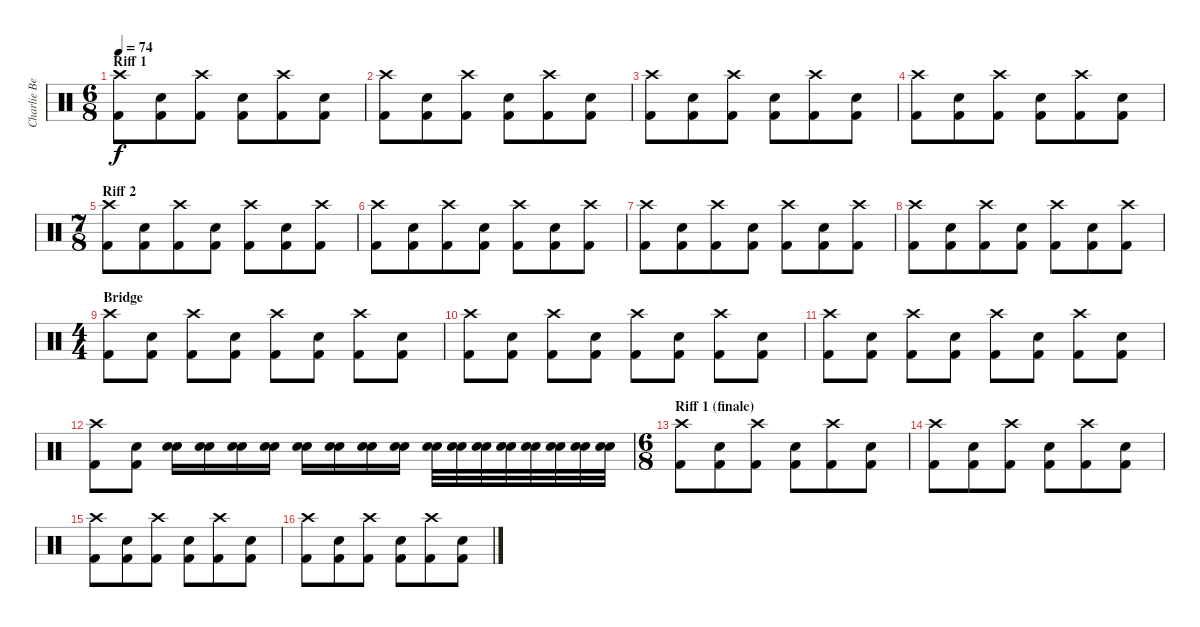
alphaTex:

\track ("Charlie Benante" "Charlie Be") {instrument percussion}
\staff {score}
\articulation defaults
\ts (6 8)
\section ("" "Riff 1")
\tempo 74
\clef neutral
\ks c
("Kick (hit) 2" "Crash high (hit)").8{dy f} ("Kick (hit) 2" "Snare (hit) 2").8 ("Kick (hit) 2" "Crash high (hit)").8 ("Kick (hit) 2" "Snare (hit) 2").8 ("Kick (hit) 2" "Crash high (hit)").8 ("Kick (hit) 2" "Snare (hit) 2").8 |
("Kick (hit) 2" "Crash high (hit)").8 ("Kick (hit) 2" "Snare (hit) 2").8 ("Kick (hit) 2" "Crash high (hit)").8 ("Kick (hit) 2" "Snare (hit) 2").8 ("Kick (hit) 2" "Crash high (hit)").8 ("Kick (hit) 2" "Snare (hit) 2").8 |
("Kick (hit) 2" "Crash high (hit)").8 ("Kick (hit) 2" "Snare (hit) 2").8 ("Kick (hit) 2" "Crash high (hit)").8 ("Kick (hit) 2" "Snare (hit) 2").8 ("Kick (hit) 2" "Crash high (hit)").8 ("Kick (hit) 2" "Snare (hit) 2").8 |
("Kick (hit) 2" "Crash high (hit)").8 ("Kick (hit) 2" "Snare (hit) 2").8 ("Kick (hit) 2" "Crash high (hit)").8 ("Kick (hit) 2" "Snare (hit) 2").8 ("Kick (hit) 2" "Crash high (hit)").8 ("Kick (hit) 2" "Snare (hit) 2").8 |
\ts (7 8)
\section ("" "Riff 2")
("Kick (hit) 2" "Crash high (hit)").8 ("Kick (hit) 2" "Snare (hit) 2").8 ("Kick (hit) 2" "Crash high (hit)").8 ("Kick (hit) 2" "Snare (hit) 2").8 ("Kick (hit) 2" "Crash high (hit)").8 ("Kick (hit) 2" "Snare (hit) 2").8 ("Kick (hit) 2" "Crash high (hit)").8 |
("Kick (hit) 2" "Crash high (hit)").8 ("Kick (hit) 2" "Snare (hit) 2").8 ("Kick (hit) 2" "Crash high (hit)").8 ("Kick (hit) 2" "Snare (hit) 2").8 ("Kick (hit) 2" "Crash high (hit)").8 ("Kick (hit) 2" "Snare (hit) 2").8 ("Kick (hit) 2" "Crash high (hit)").8 |
("Kick (hit) 2" "Crash high (hit)").8 ("Kick (hit) 2" "Snare (hit) 2").8 ("Kick (hit) 2" "Crash high (hit)").8 ("Kick (hit) 2" "Snare (hit) 2").8 ("Kick (hit) 2" "Crash high (hit)").8 ("Kick (hit) 2" "Snare (hit) 2").8 ("Kick (hit) 2" "Crash high (hit)").8 |
("Kick (hit) 2" "Crash high (hit)").8 ("Kick (hit) 2" "Snare (hit) 2").8 ("Kick (hit) 2" "Crash high (hit)").8 ("Kick (hit) 2" "Snare (hit) 2").8 ("Kick (hit) 2" "Crash high (hit)").8 ("Kick (hit) 2" "Snare (hit) 2").8 ("Kick (hit) 2" "Crash high (hit)").8 |
\ts (4 4)
\section ("" "Bridge")
("Kick (hit) 2" "Crash high (hit)").8 ("Kick (hit) 2" "Snare (hit) 2").8 ("Kick (hit) 2" "Crash high (hit)").8 ("Kick (hit) 2" "Snare (hit) 2").8 ("Kick (hit) 2" "Crash high (hit)").8 ("Kick (hit) 2" "Snare (hit) 2").8 ("Kick (hit) 2" "Crash high (hit)").8 ("Kick (hit) 2" "Snare (hit) 2").8 |
("Kick (hit) 2" "Crash high (hit)").8 ("Kick (hit) 2" "Snare (hit) 2").8 ("Kick (hit) 2" "Crash high (hit)").8 ("Kick (hit) 2" "Snare (hit) 2").8 ("Kick (hit) 2" "Crash high (hit)").8 ("Kick (hit) 2" "Snare (hit) 2").8 ("Kick (hit) 2" "Crash high (hit)").8 ("Kick (hit) 2" "Snare (hit) 2").8 |
("Kick (hit) 2" "Crash high (hit)").8 ("Kick (hit) 2" "Snare (hit) 2").8 ("Kick (hit) 2" "Crash high (hit)").8 ("Kick (hit) 2" "Snare (hit) 2").8 ("Kick (hit) 2" "Crash high (hit)").8 ("Kick (hit) 2" "Snare (hit) 2").8 ("Kick (hit) 2" "Crash high (hit)").8 ("Kick (hit) 2" "Snare (hit) 2").8 |
("Kick (hit) 2" "Crash high (hit)").8 ("Kick (hit) 2" "Snare (hit) 2").8 ("Snare (hit) 2" "Snare (hit) 2").16 ("Snare (hit) 2" "Snare (hit) 2").16 ("Snare (hit) 2" "Snare (hit) 2").16 ("Snare (hit) 2" "Snare (hit) 2").16 ("Snare (hit) 2" "Snare (hit) 2").16 ("Snare (hit) 2" "Snare (hit) 2").16 ("Snare (hit) 2" "Snare (hit) 2").16 ("Snare (hit) 2" "Snare (hit) 2").16 ("Snare (hit) 2" "Snare (hit) 2").32 ("Snare (hit) 2" "Snare (hit) 2").32 ("Snare (hit) 2" "Snare (hit) 2").32 ("Snare (hit) 2" "Snare (hit) 2").32 ("Snare (hit) 2" "Snare (hit) 2").32 ("Snare (hit) 2" "Snare (hit) 2").32 ("Snare (hit) 2" "Snare (hit) 2").32 ("Snare (hit) 2" "Snare (hit) 2").32 |
\ts (6 8)
\section ("" "Riff 1 (finale)")
("Kick (hit) 2" "Crash high (hit)").8 ("Kick (hit) 2" "Snare (hit) 2").8 ("Kick (hit) 2" "Crash high (hit)").8 ("Kick (hit) 2" "Snare (hit) 2").8 ("Kick (hit) 2" "Crash high (hit)").8 ("Kick (hit) 2" "Snare (hit) 2").8 |
("Kick (hit) 2" "Crash high (hit)").8 ("Kick (hit) 2" "Snare (hit) 2").8 ("Kick (hit) 2" "Crash high (hit)").8 ("Kick (hit) 2" "Snare (hit) 2").8 ("Kick (hit) 2" "Crash high (hit)").8 ("Kick (hit) 2" "Snare (hit) 2").8 |
("Kick (hit) 2" "Crash high (hit)").8 ("Kick (hit) 2" "Snare (hit) 2").8 ("Kick (hit) 2" "Crash high (hit)").8 ("Kick (hit) 2" "Snare (hit) 2").8 ("Kick (hit) 2" "Crash high (hit)").8 ("Kick (hit) 2" "Snare (hit) 2").8 |
("Kick (hit) 2" "Crash high (hit)").8 ("Kick (hit) 2" "Snare (hit) 2").8 ("Kick (hit) 2" "Crash high (hit)").8 ("Kick (hit) 2" "Snare (hit) 2").8 ("Kick (hit) 2" "Crash high (hit)").8 ("Kick (hit) 2" "Snare (hit) 2").8
